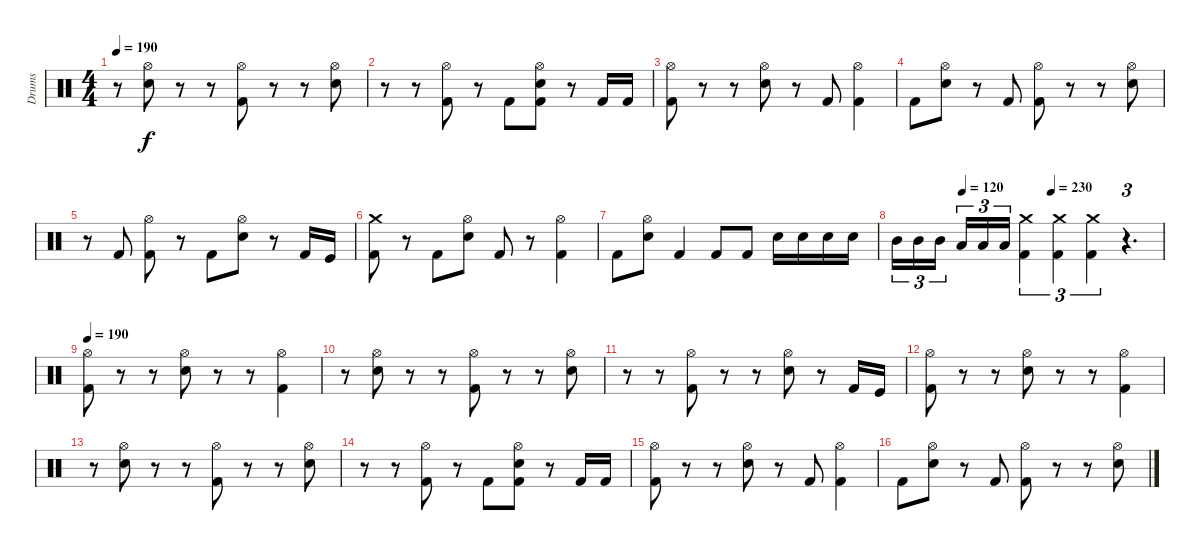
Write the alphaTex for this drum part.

\track ("Drums" "Drums") {instrument percussion}
\staff {score}
\articulation defaults
\ts (4 4)
\tempo 190
\clef neutral
\ks c
r.8{dy f} ("Hi-Hat (open)" "Electric Snare (hit)").8 r.8 r.8 ("Hi-Hat (open)" "Kick (hit) 2").8 r.8 r.8 ("Hi-Hat (open)" "Electric Snare (hit)").8 |
r.8 r.8 ("Hi-Hat (open)" "Kick (hit) 2").8 r.8 "Kick (hit) 2".8 ("Hi-Hat (open)" "Electric Snare (hit)" "Kick (hit) 2").8 r.8 "Kick (hit) 2".16 "Kick (hit) 2".16 |
("Hi-Hat (open)" "Kick (hit) 2").8 r.8 r.8 ("Hi-Hat (open)" "Electric Snare (hit)").8 r.8 "Kick (hit) 2".8 ("Hi-Hat (open)" "Kick (hit) 2").4 |
"Kick (hit) 2".8 ("Hi-Hat (open)" "Electric Snare (hit)").8 r.8 "Kick (hit) 2".8 ("Hi-Hat (open)" "Kick (hit) 2").8 r.8 r.8 ("Hi-Hat (open)" "Electric Snare (hit)").8 |
r.8 "Kick (hit) 2".8 ("Hi-Hat (open)" "Kick (hit) 2").8 r.8 "Kick (hit) 2".8 ("Hi-Hat (open)" "Electric Snare (hit)").8 r.8 "Kick (hit) 2".16 "Kick (hit)".16 |
("Crash medium (hit)" "Kick (hit) 2").8 r.8 "Kick (hit) 2".8 ("Hi-Hat (open)" "Electric Snare (hit)").8 "Kick (hit) 2".8 r.8 ("Hi-Hat (open)" "Kick (hit) 2").4 |
"Kick (hit) 2".8 ("Hi-Hat (open)" "Electric Snare (hit)").8 "Kick (hit) 2".4 "Kick (hit) 2".8 "Kick (hit) 2".8 "Electric Snare (hit)".16 "Electric Snare (hit)".16 "Electric Snare (hit)".16 "Electric Snare (hit)".16 |
\tempo (120 0.25)
\tempo (230 0.5833333333333334)
"Mid Tom (hit)".16{tu (3 2)} "Mid Tom (hit)".16{tu (3 2)} "Mid Tom (hit)".16{tu (3 2)} "Low Tom (hit)".16{tu (3 2)} "Low Tom (hit)".16{tu (3 2)} "Low Tom (hit)".16{tu (3 2)} ("Crash medium (hit)" "Kick (hit) 2").4{tu (3 2)} ("Crash medium (hit)" "Kick (hit) 2").4{tu (3 2)} ("Crash medium (hit)" "Kick (hit) 2").4{tu (3 2)} r.4{d tu (3 2)} |
\tempo 190
("Hi-Hat (open)" "Kick (hit) 2").8 r.8 r.8 ("Hi-Hat (open)" "Electric Snare (hit)").8 r.8 r.8 ("Hi-Hat (open)" "Kick (hit) 2").4 |
r.8 ("Hi-Hat (open)" "Electric Snare (hit)").8 r.8 r.8 ("Hi-Hat (open)" "Kick (hit) 2").8 r.8 r.8 ("Hi-Hat (open)" "Electric Snare (hit)").8 |
r.8 r.8 ("Hi-Hat (open)" "Kick (hit) 2").8 r.8 r.8 ("Hi-Hat (open)" "Electric Snare (hit)").8 r.8 "Kick (hit) 2".16 "Kick (hit)".16 |
("Hi-Hat (open)" "Kick (hit) 2").8 r.8 r.8 ("Hi-Hat (open)" "Electric Snare (hit)").8 r.8 r.8 ("Hi-Hat (open)" "Kick (hit) 2").4 |
r.8 ("Hi-Hat (open)" "Electric Snare (hit)").8 r.8 r.8 ("Hi-Hat (open)" "Kick (hit) 2").8 r.8 r.8 ("Hi-Hat (open)" "Electric Snare (hit)").8 |
r.8 r.8 ("Hi-Hat (open)" "Kick (hit) 2").8 r.8 "Kick (hit) 2".8 ("Hi-Hat (open)" "Electric Snare (hit)" "Kick (hit) 2").8 r.8 "Kick (hit) 2".16 "Kick (hit) 2".16 |
("Hi-Hat (open)" "Kick (hit) 2").8 r.8 r.8 ("Hi-Hat (open)" "Electric Snare (hit)").8 r.8 "Kick (hit) 2".8 ("Hi-Hat (open)" "Kick (hit) 2").4 |
"Kick (hit) 2".8 ("Hi-Hat (open)" "Electric Snare (hit)").8 r.8 "Kick (hit) 2".8 ("Hi-Hat (open)" "Kick (hit) 2").8 r.8 r.8 ("Hi-Hat (open)" "Electric Snare (hit)").8
